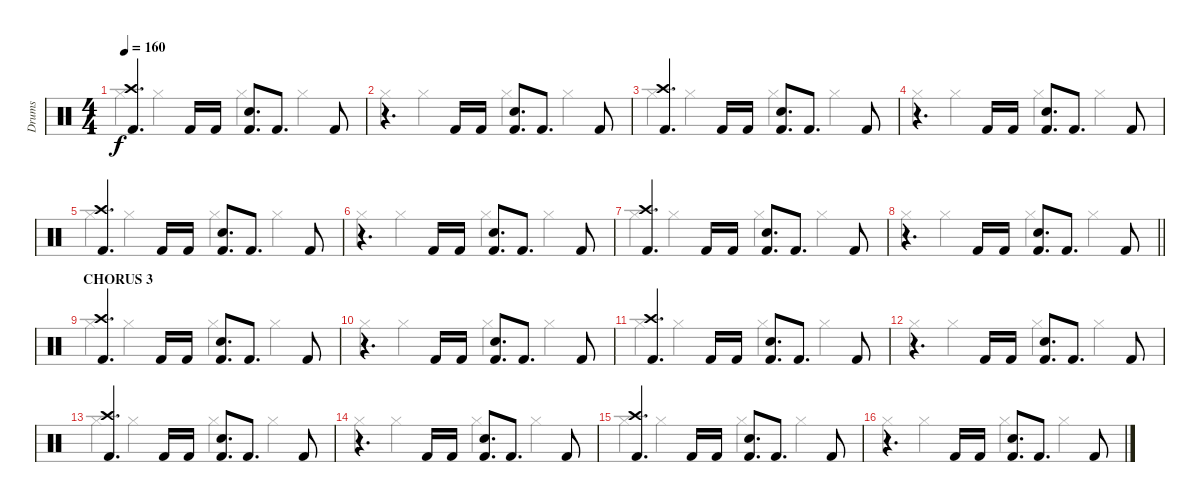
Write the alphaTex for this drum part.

\track ("Drums" "Drums") {instrument percussion}
\staff {score}
\articulation defaults
\voice
\ts (4 4)
\tempo 160
\clef neutral
\ks c
("Crash high (hit)" "Kick (hit) 2").4{d dy f} "Kick (hit) 2".16 "Kick (hit) 2".16 ("Snare (hit) 2" "Kick (hit) 2").8{d} "Kick (hit) 2".8{d} "Kick (hit) 2".8 |
r.4{d} "Kick (hit) 2".16 "Kick (hit) 2".16 ("Snare (hit) 2" "Kick (hit) 2").8{d} "Kick (hit) 2".8{d} "Kick (hit) 2".8 |
("Crash high (hit)" "Kick (hit) 2").4{d} "Kick (hit) 2".16 "Kick (hit) 2".16 ("Snare (hit) 2" "Kick (hit) 2").8{d} "Kick (hit) 2".8{d} "Kick (hit) 2".8 |
r.4{d} "Kick (hit) 2".16 "Kick (hit) 2".16 ("Snare (hit) 2" "Kick (hit) 2").8{d} "Kick (hit) 2".8{d} "Kick (hit) 2".8 |
("Crash high (hit)" "Kick (hit) 2").4{d} "Kick (hit) 2".16 "Kick (hit) 2".16 ("Snare (hit) 2" "Kick (hit) 2").8{d} "Kick (hit) 2".8{d} "Kick (hit) 2".8 |
r.4{d} "Kick (hit) 2".16 "Kick (hit) 2".16 ("Snare (hit) 2" "Kick (hit) 2").8{d} "Kick (hit) 2".8{d} "Kick (hit) 2".8 |
("Crash high (hit)" "Kick (hit) 2").4{d} "Kick (hit) 2".16 "Kick (hit) 2".16 ("Snare (hit) 2" "Kick (hit) 2").8{d} "Kick (hit) 2".8{d} "Kick (hit) 2".8 |
\barLineRight lightlight
r.4{d} "Kick (hit) 2".16 "Kick (hit) 2".16 ("Snare (hit) 2" "Kick (hit) 2").8{d} "Kick (hit) 2".8{d} "Kick (hit) 2".8 |
\section ("" "CHORUS 3")
("Crash high (hit)" "Kick (hit) 2").4{d} "Kick (hit) 2".16 "Kick (hit) 2".16 ("Snare (hit) 2" "Kick (hit) 2").8{d} "Kick (hit) 2".8{d} "Kick (hit) 2".8 |
r.4{d} "Kick (hit) 2".16 "Kick (hit) 2".16 ("Snare (hit) 2" "Kick (hit) 2").8{d} "Kick (hit) 2".8{d} "Kick (hit) 2".8 |
("Crash high (hit)" "Kick (hit) 2").4{d} "Kick (hit) 2".16 "Kick (hit) 2".16 ("Snare (hit) 2" "Kick (hit) 2").8{d} "Kick (hit) 2".8{d} "Kick (hit) 2".8 |
r.4{d} "Kick (hit) 2".16 "Kick (hit) 2".16 ("Snare (hit) 2" "Kick (hit) 2").8{d} "Kick (hit) 2".8{d} "Kick (hit) 2".8 |
("Crash high (hit)" "Kick (hit) 2").4{d} "Kick (hit) 2".16 "Kick (hit) 2".16 ("Snare (hit) 2" "Kick (hit) 2").8{d} "Kick (hit) 2".8{d} "Kick (hit) 2".8 |
r.4{d} "Kick (hit) 2".16 "Kick (hit) 2".16 ("Snare (hit) 2" "Kick (hit) 2").8{d} "Kick (hit) 2".8{d} "Kick (hit) 2".8 |
("Crash high (hit)" "Kick (hit) 2").4{d} "Kick (hit) 2".16 "Kick (hit) 2".16 ("Snare (hit) 2" "Kick (hit) 2").8{d} "Kick (hit) 2".8{d} "Kick (hit) 2".8 |
r.4{d} "Kick (hit) 2".16 "Kick (hit) 2".16 ("Snare (hit) 2" "Kick (hit) 2").8{d} "Kick (hit) 2".8{d} "Kick (hit) 2".8
\voice
\clef neutral
\ottava regular
\simile none
\ks c "Hi-Hat (closed)".4{dy f} "Hi-Hat (closed)".4 "Hi-Hat (closed)".4 "Hi-Hat (closed)".4
|
"Hi-Hat (closed)".4 "Hi-Hat (closed)".4 "Hi-Hat (closed)".4 "Hi-Hat (closed)".4 |
"Hi-Hat (closed)".4 "Hi-Hat (closed)".4 "Hi-Hat (closed)".4 "Hi-Hat (closed)".4 |
"Hi-Hat (closed)".4 "Hi-Hat (closed)".4 "Hi-Hat (closed)".4 "Hi-Hat (closed)".4 |
"Hi-Hat (closed)".4 "Hi-Hat (closed)".4 "Hi-Hat (closed)".4 "Hi-Hat (closed)".4 |
"Hi-Hat (closed)".4 "Hi-Hat (closed)".4 "Hi-Hat (closed)".4 "Hi-Hat (closed)".4 |
"Hi-Hat (closed)".4 "Hi-Hat (closed)".4 "Hi-Hat (closed)".4 "Hi-Hat (closed)".4 |
\barLineRight lightlight "Hi-Hat (closed)".4 "Hi-Hat (closed)".4 "Hi-Hat (closed)".4 "Hi-Hat (closed)".4
|
"Hi-Hat (closed)".4 "Hi-Hat (closed)".4 "Hi-Hat (closed)".4 "Hi-Hat (closed)".4 |
"Hi-Hat (closed)".4 "Hi-Hat (closed)".4 "Hi-Hat (closed)".4 "Hi-Hat (closed)".4 |
"Hi-Hat (closed)".4 "Hi-Hat (closed)".4 "Hi-Hat (closed)".4 "Hi-Hat (closed)".4 |
"Hi-Hat (closed)".4 "Hi-Hat (closed)".4 "Hi-Hat (closed)".4 "Hi-Hat (closed)".4 |
"Hi-Hat (closed)".4 "Hi-Hat (closed)".4 "Hi-Hat (closed)".4 "Hi-Hat (closed)".4 |
"Hi-Hat (closed)".4 "Hi-Hat (closed)".4 "Hi-Hat (closed)".4 "Hi-Hat (closed)".4 |
"Hi-Hat (closed)".4 "Hi-Hat (closed)".4 "Hi-Hat (closed)".4 "Hi-Hat (closed)".4 |
"Hi-Hat (closed)".4 "Hi-Hat (closed)".4 "Hi-Hat (closed)".4 "Hi-Hat (closed)".4
